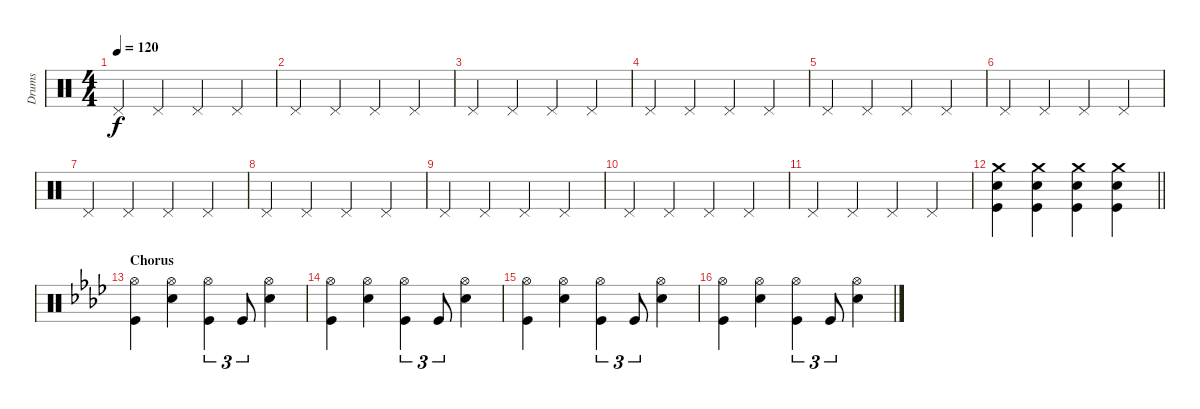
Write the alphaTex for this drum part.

\track ("Drums" "Drums") {instrument percussion}
\staff {score}
\articulation defaults
\ts (4 4)
\tempo 120
\clef neutral
\ks c "Pedal Hi-Hat (hit)".4{dy f} "Pedal Hi-Hat (hit)".4 "Pedal Hi-Hat (hit)".4 "Pedal Hi-Hat (hit)".4
|
"Pedal Hi-Hat (hit)".4 "Pedal Hi-Hat (hit)".4 "Pedal Hi-Hat (hit)".4 "Pedal Hi-Hat (hit)".4 |
"Pedal Hi-Hat (hit)".4 "Pedal Hi-Hat (hit)".4 "Pedal Hi-Hat (hit)".4 "Pedal Hi-Hat (hit)".4 |
"Pedal Hi-Hat (hit)".4 "Pedal Hi-Hat (hit)".4 "Pedal Hi-Hat (hit)".4 "Pedal Hi-Hat (hit)".4 |
"Pedal Hi-Hat (hit)".4 "Pedal Hi-Hat (hit)".4 "Pedal Hi-Hat (hit)".4 "Pedal Hi-Hat (hit)".4 |
"Pedal Hi-Hat (hit)".4 "Pedal Hi-Hat (hit)".4 "Pedal Hi-Hat (hit)".4 "Pedal Hi-Hat (hit)".4 |
"Pedal Hi-Hat (hit)".4 "Pedal Hi-Hat (hit)".4 "Pedal Hi-Hat (hit)".4 "Pedal Hi-Hat (hit)".4 |
"Pedal Hi-Hat (hit)".4 "Pedal Hi-Hat (hit)".4 "Pedal Hi-Hat (hit)".4 "Pedal Hi-Hat (hit)".4 |
"Pedal Hi-Hat (hit)".4 "Pedal Hi-Hat (hit)".4 "Pedal Hi-Hat (hit)".4 "Pedal Hi-Hat (hit)".4 |
"Pedal Hi-Hat (hit)".4 "Pedal Hi-Hat (hit)".4 "Pedal Hi-Hat (hit)".4 "Pedal Hi-Hat (hit)".4 |
"Pedal Hi-Hat (hit)".4 "Pedal Hi-Hat (hit)".4 "Pedal Hi-Hat (hit)".4 "Pedal Hi-Hat (hit)".4 |
\barLineRight lightlight
("Crash medium (hit)" "Snare (hit) 2" "Kick (hit)").4 ("Crash medium (hit)" "Snare (hit) 2" "Kick (hit)").4 ("Crash medium (hit)" "Snare (hit) 2" "Kick (hit)").4 ("Crash medium (hit)" "Snare (hit) 2" "Kick (hit)").4 |
\section ("" "Chorus")
\ks ab
("Hi-Hat (open)" "Kick (hit)").4 ("Hi-Hat (open)" "Snare (hit) 2").4 ("Hi-Hat (open)" "Kick (hit)").4{tu (3 2)} "Kick (hit)".8{tu (3 2)} ("Hi-Hat (open)" "Snare (hit) 2").4 |
("Hi-Hat (open)" "Kick (hit)").4 ("Hi-Hat (open)" "Snare (hit) 2").4 ("Hi-Hat (open)" "Kick (hit)").4{tu (3 2)} "Kick (hit)".8{tu (3 2)} ("Hi-Hat (open)" "Snare (hit) 2").4 |
("Hi-Hat (open)" "Kick (hit)").4 ("Hi-Hat (open)" "Snare (hit) 2").4 ("Hi-Hat (open)" "Kick (hit)").4{tu (3 2)} "Kick (hit)".8{tu (3 2)} ("Hi-Hat (open)" "Snare (hit) 2").4 |
("Hi-Hat (open)" "Kick (hit)").4 ("Hi-Hat (open)" "Snare (hit) 2").4 ("Hi-Hat (open)" "Kick (hit)").4{tu (3 2)} "Kick (hit)".8{tu (3 2)} ("Hi-Hat (open)" "Snare (hit) 2").4
